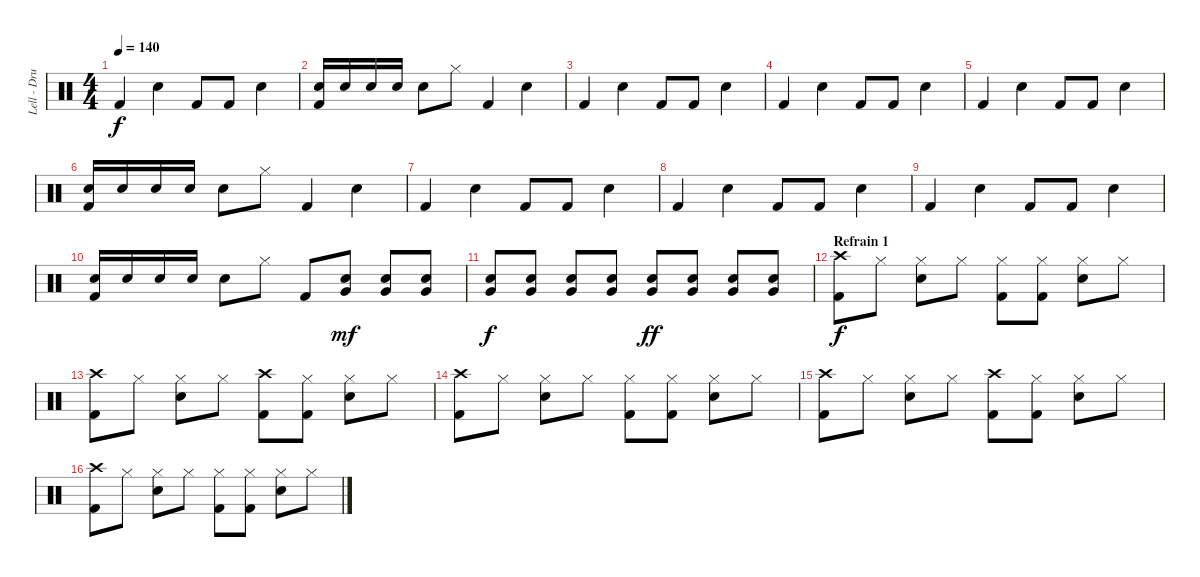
\track ("Lell - Drums" "Lell - Dru") {instrument percussion}
\staff {score}
\articulation defaults
\ts (4 4)
\tempo 140
\clef neutral
\ks c "Kick (hit) 2".4{dy f} "Snare (hit) 2".4 "Kick (hit) 2".8 "Kick (hit) 2".8 "Snare (hit) 2".4
|
("Snare (hit) 2" "Kick (hit) 2").16 "Snare (hit) 2".16 "Snare (hit) 2".16 "Snare (hit) 2".16 "Snare (hit) 2".8 "Hi-Hat (closed)".8 "Kick (hit) 2".4 "Snare (hit) 2".4 |
"Kick (hit) 2".4 "Snare (hit) 2".4 "Kick (hit) 2".8 "Kick (hit) 2".8 "Snare (hit) 2".4 |
"Kick (hit) 2".4 "Snare (hit) 2".4 "Kick (hit) 2".8 "Kick (hit) 2".8 "Snare (hit) 2".4 |
"Kick (hit) 2".4 "Snare (hit) 2".4 "Kick (hit) 2".8 "Kick (hit) 2".8 "Snare (hit) 2".4 |
("Snare (hit) 2" "Kick (hit) 2").16 "Snare (hit) 2".16 "Snare (hit) 2".16 "Snare (hit) 2".16 "Snare (hit) 2".8 "Hi-Hat (closed)".8 "Kick (hit) 2".4 "Snare (hit) 2".4 |
"Kick (hit) 2".4 "Snare (hit) 2".4 "Kick (hit) 2".8 "Kick (hit) 2".8 "Snare (hit) 2".4 |
"Kick (hit) 2".4 "Snare (hit) 2".4 "Kick (hit) 2".8 "Kick (hit) 2".8 "Snare (hit) 2".4 |
"Kick (hit) 2".4 "Snare (hit) 2".4 "Kick (hit) 2".8 "Kick (hit) 2".8 "Snare (hit) 2".4 |
("Snare (hit) 2" "Kick (hit) 2").16 "Snare (hit) 2".16 "Snare (hit) 2".16 "Snare (hit) 2".16 "Snare (hit) 2".8 "Hi-Hat (closed)".8 "Kick (hit) 2".8 ("Very Low Tom (hit)" "Snare (hit) 2").8{dy mf} ("Very Low Tom (hit)" "Snare (hit) 2").8 ("Very Low Tom (hit)" "Snare (hit) 2").8 |
("Very Low Tom (hit)" "Snare (hit) 2").8{dy f} ("Very Low Tom (hit)" "Snare (hit) 2").8 ("Very Low Tom (hit)" "Snare (hit) 2").8 ("Very Low Tom (hit)" "Snare (hit) 2").8 ("Very Low Tom (hit)" "Snare (hit) 2").8{dy ff} ("Very Low Tom (hit)" "Snare (hit) 2").8 ("Very Low Tom (hit)" "Snare (hit) 2").8 ("Very Low Tom (hit)" "Snare (hit) 2").8 |
\section ("" "Refrain 1")
("Crash high (hit)" "Kick (hit) 2").8{dy f} "Hi-Hat (closed)".8 ("Hi-Hat (closed)" "Snare (hit) 2").8 "Hi-Hat (closed)".8 ("Hi-Hat (closed)" "Kick (hit) 2").8 ("Hi-Hat (closed)" "Kick (hit) 2").8 ("Hi-Hat (closed)" "Snare (hit) 2").8 "Hi-Hat (closed)".8 |
("Crash high (hit)" "Kick (hit) 2").8 "Hi-Hat (closed)".8 ("Hi-Hat (closed)" "Snare (hit) 2").8 "Hi-Hat (closed)".8 ("Crash high (hit)" "Kick (hit) 2").8 ("Hi-Hat (closed)" "Kick (hit) 2").8 ("Hi-Hat (closed)" "Snare (hit) 2").8 "Hi-Hat (closed)".8 |
("Crash high (hit)" "Kick (hit) 2").8 "Hi-Hat (closed)".8 ("Hi-Hat (closed)" "Snare (hit) 2").8 "Hi-Hat (closed)".8 ("Hi-Hat (closed)" "Kick (hit) 2").8 ("Hi-Hat (closed)" "Kick (hit) 2").8 ("Hi-Hat (closed)" "Snare (hit) 2").8 "Hi-Hat (closed)".8 |
("Crash high (hit)" "Kick (hit) 2").8 "Hi-Hat (closed)".8 ("Hi-Hat (closed)" "Snare (hit) 2").8 "Hi-Hat (closed)".8 ("Crash high (hit)" "Kick (hit) 2").8 ("Hi-Hat (closed)" "Kick (hit) 2").8 ("Hi-Hat (closed)" "Snare (hit) 2").8 "Hi-Hat (closed)".8 |
("Crash high (hit)" "Kick (hit) 2").8 "Hi-Hat (closed)".8 ("Hi-Hat (closed)" "Snare (hit) 2").8 "Hi-Hat (closed)".8 ("Hi-Hat (closed)" "Kick (hit) 2").8 ("Hi-Hat (closed)" "Kick (hit) 2").8 ("Hi-Hat (closed)" "Snare (hit) 2").8 "Hi-Hat (closed)".8
